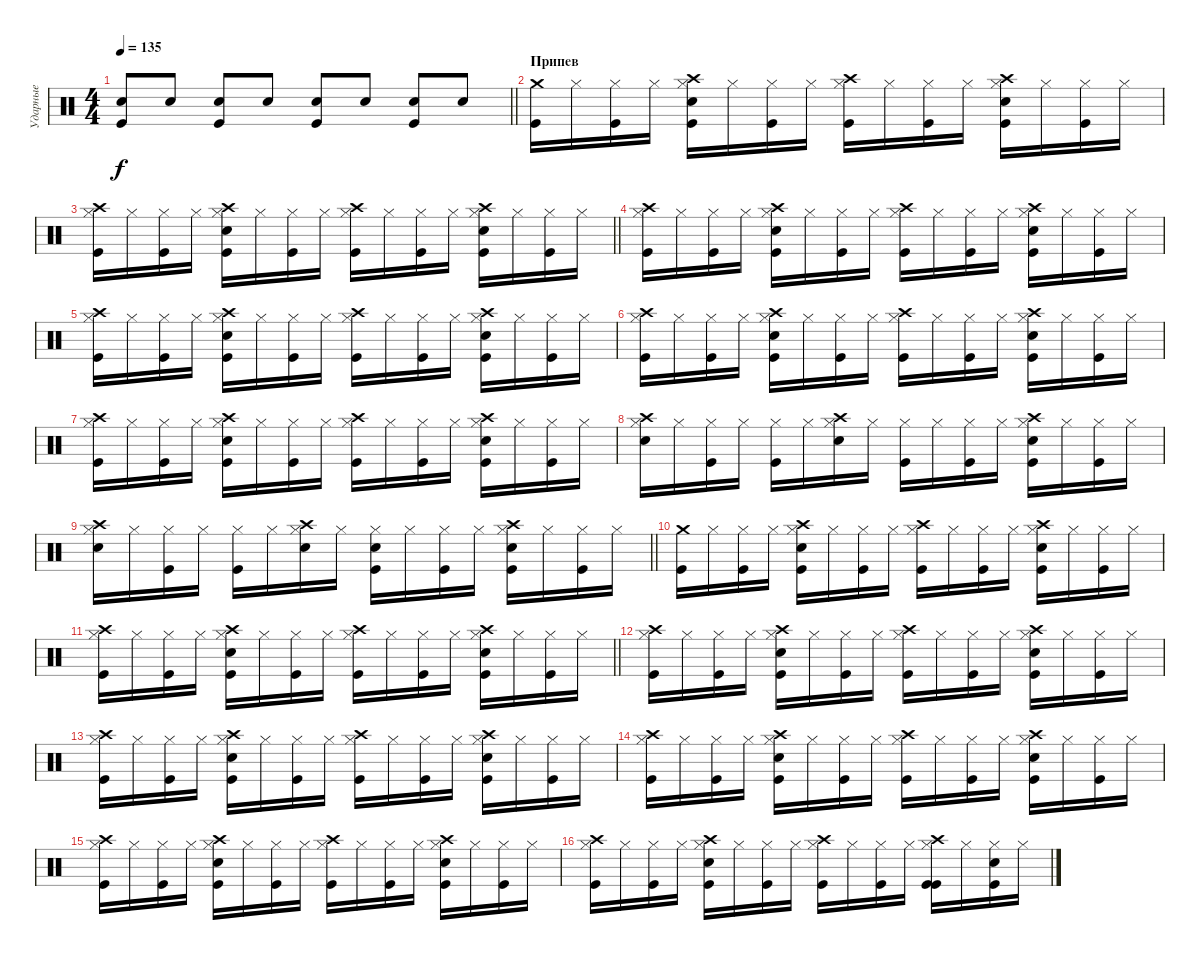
\track ("Ударные" "Ударные") {instrument percussion}
\staff {score}
\articulation defaults
\ts (4 4)
\tempo 135
\clef neutral
\barLineRight lightlight
\ks c
("Electric Snare (hit)" "Kick (hit)").8{dy f} "Electric Snare (hit)".8 ("Electric Snare (hit)" "Kick (hit)").8 "Electric Snare (hit)".8 ("Electric Snare (hit)" "Kick (hit)").8 "Electric Snare (hit)".8 ("Electric Snare (hit)" "Kick (hit)").8 "Electric Snare (hit)".8 |
\section ("" "Припев")
("Crash medium (hit)" "Kick (hit)").16 "Hi-Hat (closed)".16 ("Hi-Hat (closed)" "Kick (hit)").16 "Hi-Hat (closed)".16 ("Crash high (hit)" "Hi-Hat (closed)" "Electric Snare (hit)" "Kick (hit)").16 "Hi-Hat (closed)".16 ("Hi-Hat (closed)" "Kick (hit)").16 "Hi-Hat (closed)".16 ("Crash high (hit)" "Hi-Hat (closed)" "Kick (hit)").16 "Hi-Hat (closed)".16 ("Hi-Hat (closed)" "Kick (hit)").16 "Hi-Hat (closed)".16 ("Crash high (hit)" "Hi-Hat (closed)" "Electric Snare (hit)" "Kick (hit)").16 "Hi-Hat (closed)".16 ("Hi-Hat (closed)" "Kick (hit)").16 "Hi-Hat (closed)".16 |
\barLineRight lightlight
("Crash high (hit)" "Hi-Hat (closed)" "Kick (hit)").16 "Hi-Hat (closed)".16 ("Hi-Hat (closed)" "Kick (hit)").16 "Hi-Hat (closed)".16 ("Crash high (hit)" "Hi-Hat (closed)" "Electric Snare (hit)" "Kick (hit)").16 "Hi-Hat (closed)".16 ("Hi-Hat (closed)" "Kick (hit)").16 "Hi-Hat (closed)".16 ("Crash high (hit)" "Hi-Hat (closed)" "Kick (hit)").16 "Hi-Hat (closed)".16 ("Hi-Hat (closed)" "Kick (hit)").16 "Hi-Hat (closed)".16 ("Crash high (hit)" "Hi-Hat (closed)" "Electric Snare (hit)" "Kick (hit)").16 "Hi-Hat (closed)".16 ("Hi-Hat (closed)" "Kick (hit)").16 "Hi-Hat (closed)".16 |
("Crash high (hit)" "Hi-Hat (closed)" "Kick (hit)").16 "Hi-Hat (closed)".16 ("Hi-Hat (closed)" "Kick (hit)").16 "Hi-Hat (closed)".16 ("Crash high (hit)" "Hi-Hat (closed)" "Electric Snare (hit)" "Kick (hit)").16 "Hi-Hat (closed)".16 ("Hi-Hat (closed)" "Kick (hit)").16 "Hi-Hat (closed)".16 ("Crash high (hit)" "Hi-Hat (closed)" "Kick (hit)").16 "Hi-Hat (closed)".16 ("Hi-Hat (closed)" "Kick (hit)").16 "Hi-Hat (closed)".16 ("Crash high (hit)" "Hi-Hat (closed)" "Electric Snare (hit)" "Kick (hit)").16 "Hi-Hat (closed)".16 ("Hi-Hat (closed)" "Kick (hit)").16 "Hi-Hat (closed)".16 |
("Crash high (hit)" "Hi-Hat (closed)" "Kick (hit)").16 "Hi-Hat (closed)".16 ("Hi-Hat (closed)" "Kick (hit)").16 "Hi-Hat (closed)".16 ("Crash high (hit)" "Hi-Hat (closed)" "Electric Snare (hit)" "Kick (hit)").16 "Hi-Hat (closed)".16 ("Hi-Hat (closed)" "Kick (hit)").16 "Hi-Hat (closed)".16 ("Crash high (hit)" "Hi-Hat (closed)" "Kick (hit)").16 "Hi-Hat (closed)".16 ("Hi-Hat (closed)" "Kick (hit)").16 "Hi-Hat (closed)".16 ("Crash high (hit)" "Hi-Hat (closed)" "Electric Snare (hit)" "Kick (hit)").16 "Hi-Hat (closed)".16 ("Hi-Hat (closed)" "Kick (hit)").16 "Hi-Hat (closed)".16 |
("Crash high (hit)" "Hi-Hat (closed)" "Kick (hit)").16 "Hi-Hat (closed)".16 ("Hi-Hat (closed)" "Kick (hit)").16 "Hi-Hat (closed)".16 ("Crash high (hit)" "Hi-Hat (closed)" "Electric Snare (hit)" "Kick (hit)").16 "Hi-Hat (closed)".16 ("Hi-Hat (closed)" "Kick (hit)").16 "Hi-Hat (closed)".16 ("Crash high (hit)" "Hi-Hat (closed)" "Kick (hit)").16 "Hi-Hat (closed)".16 ("Hi-Hat (closed)" "Kick (hit)").16 "Hi-Hat (closed)".16 ("Crash high (hit)" "Hi-Hat (closed)" "Electric Snare (hit)" "Kick (hit)").16 "Hi-Hat (closed)".16 ("Hi-Hat (closed)" "Kick (hit)").16 "Hi-Hat (closed)".16 |
("Crash high (hit)" "Hi-Hat (closed)" "Kick (hit)").16 "Hi-Hat (closed)".16 ("Hi-Hat (closed)" "Kick (hit)").16 "Hi-Hat (closed)".16 ("Crash high (hit)" "Hi-Hat (closed)" "Electric Snare (hit)" "Kick (hit)").16 "Hi-Hat (closed)".16 ("Hi-Hat (closed)" "Kick (hit)").16 "Hi-Hat (closed)".16 ("Crash high (hit)" "Hi-Hat (closed)" "Kick (hit)").16 "Hi-Hat (closed)".16 ("Hi-Hat (closed)" "Kick (hit)").16 "Hi-Hat (closed)".16 ("Crash high (hit)" "Hi-Hat (closed)" "Electric Snare (hit)" "Kick (hit)").16 "Hi-Hat (closed)".16 ("Hi-Hat (closed)" "Kick (hit)").16 "Hi-Hat (closed)".16 |
("Crash high (hit)" "Hi-Hat (closed)" "Electric Snare (hit)").16 "Hi-Hat (closed)".16 ("Hi-Hat (closed)" "Kick (hit)").16 "Hi-Hat (closed)".16 ("Hi-Hat (closed)" "Kick (hit)").16 "Hi-Hat (closed)".16 ("Crash high (hit)" "Hi-Hat (closed)" "Electric Snare (hit)").16 "Hi-Hat (closed)".16 ("Hi-Hat (closed)" "Kick (hit)").16 "Hi-Hat (closed)".16 ("Hi-Hat (closed)" "Kick (hit)").16 "Hi-Hat (closed)".16 ("Crash high (hit)" "Hi-Hat (closed)" "Electric Snare (hit)" "Kick (hit)").16 "Hi-Hat (closed)".16 ("Hi-Hat (closed)" "Kick (hit)").16 "Hi-Hat (closed)".16 |
\barLineRight lightlight
("Crash high (hit)" "Hi-Hat (closed)" "Electric Snare (hit)").16 "Hi-Hat (closed)".16 ("Hi-Hat (closed)" "Kick (hit)").16 "Hi-Hat (closed)".16 ("Hi-Hat (closed)" "Kick (hit)").16 "Hi-Hat (closed)".16 ("Crash high (hit)" "Hi-Hat (closed)" "Electric Snare (hit)").16 "Hi-Hat (closed)".16 ("Hi-Hat (closed)" "Electric Snare (hit)" "Kick (hit)").16 "Hi-Hat (closed)".16 ("Hi-Hat (closed)" "Kick (hit)").16 "Hi-Hat (closed)".16 ("Crash high (hit)" "Hi-Hat (closed)" "Electric Snare (hit)" "Kick (hit)").16 "Hi-Hat (closed)".16 ("Hi-Hat (closed)" "Kick (hit)").16 "Hi-Hat (closed)".16 |
\section ("" " ")
("Crash medium (hit)" "Kick (hit)").16 "Hi-Hat (closed)".16 ("Hi-Hat (closed)" "Kick (hit)").16 "Hi-Hat (closed)".16 ("Crash high (hit)" "Hi-Hat (closed)" "Electric Snare (hit)" "Kick (hit)").16 "Hi-Hat (closed)".16 ("Hi-Hat (closed)" "Kick (hit)").16 "Hi-Hat (closed)".16 ("Crash high (hit)" "Hi-Hat (closed)" "Kick (hit)").16 "Hi-Hat (closed)".16 ("Hi-Hat (closed)" "Kick (hit)").16 "Hi-Hat (closed)".16 ("Crash high (hit)" "Hi-Hat (closed)" "Electric Snare (hit)" "Kick (hit)").16 "Hi-Hat (closed)".16 ("Hi-Hat (closed)" "Kick (hit)").16 "Hi-Hat (closed)".16 |
\barLineRight lightlight
("Crash high (hit)" "Hi-Hat (closed)" "Kick (hit)").16 "Hi-Hat (closed)".16 ("Hi-Hat (closed)" "Kick (hit)").16 "Hi-Hat (closed)".16 ("Crash high (hit)" "Hi-Hat (closed)" "Electric Snare (hit)" "Kick (hit)").16 "Hi-Hat (closed)".16 ("Hi-Hat (closed)" "Kick (hit)").16 "Hi-Hat (closed)".16 ("Crash high (hit)" "Hi-Hat (closed)" "Kick (hit)").16 "Hi-Hat (closed)".16 ("Hi-Hat (closed)" "Kick (hit)").16 "Hi-Hat (closed)".16 ("Crash high (hit)" "Hi-Hat (closed)" "Electric Snare (hit)" "Kick (hit)").16 "Hi-Hat (closed)".16 ("Hi-Hat (closed)" "Kick (hit)").16 "Hi-Hat (closed)".16 |
("Crash high (hit)" "Hi-Hat (closed)" "Kick (hit)").16 "Hi-Hat (closed)".16 ("Hi-Hat (closed)" "Kick (hit)").16 "Hi-Hat (closed)".16 ("Crash high (hit)" "Hi-Hat (closed)" "Electric Snare (hit)" "Kick (hit)").16 "Hi-Hat (closed)".16 ("Hi-Hat (closed)" "Kick (hit)").16 "Hi-Hat (closed)".16 ("Crash high (hit)" "Hi-Hat (closed)" "Kick (hit)").16 "Hi-Hat (closed)".16 ("Hi-Hat (closed)" "Kick (hit)").16 "Hi-Hat (closed)".16 ("Crash high (hit)" "Hi-Hat (closed)" "Electric Snare (hit)" "Kick (hit)").16 "Hi-Hat (closed)".16 ("Hi-Hat (closed)" "Kick (hit)").16 "Hi-Hat (closed)".16 |
("Crash high (hit)" "Hi-Hat (closed)" "Kick (hit)").16 "Hi-Hat (closed)".16 ("Hi-Hat (closed)" "Kick (hit)").16 "Hi-Hat (closed)".16 ("Crash high (hit)" "Hi-Hat (closed)" "Electric Snare (hit)" "Kick (hit)").16 "Hi-Hat (closed)".16 ("Hi-Hat (closed)" "Kick (hit)").16 "Hi-Hat (closed)".16 ("Crash high (hit)" "Hi-Hat (closed)" "Kick (hit)").16 "Hi-Hat (closed)".16 ("Hi-Hat (closed)" "Kick (hit)").16 "Hi-Hat (closed)".16 ("Crash high (hit)" "Hi-Hat (closed)" "Electric Snare (hit)" "Kick (hit)").16 "Hi-Hat (closed)".16 ("Hi-Hat (closed)" "Kick (hit)").16 "Hi-Hat (closed)".16 |
("Crash high (hit)" "Hi-Hat (closed)" "Kick (hit)").16 "Hi-Hat (closed)".16 ("Hi-Hat (closed)" "Kick (hit)").16 "Hi-Hat (closed)".16 ("Crash high (hit)" "Hi-Hat (closed)" "Electric Snare (hit)" "Kick (hit)").16 "Hi-Hat (closed)".16 ("Hi-Hat (closed)" "Kick (hit)").16 "Hi-Hat (closed)".16 ("Crash high (hit)" "Hi-Hat (closed)" "Kick (hit)").16 "Hi-Hat (closed)".16 ("Hi-Hat (closed)" "Kick (hit)").16 "Hi-Hat (closed)".16 ("Crash high (hit)" "Hi-Hat (closed)" "Electric Snare (hit)" "Kick (hit)").16 "Hi-Hat (closed)".16 ("Hi-Hat (closed)" "Kick (hit)").16 "Hi-Hat (closed)".16 |
("Crash high (hit)" "Hi-Hat (closed)" "Kick (hit)").16 "Hi-Hat (closed)".16 ("Hi-Hat (closed)" "Kick (hit)").16 "Hi-Hat (closed)".16 ("Crash high (hit)" "Hi-Hat (closed)" "Electric Snare (hit)" "Kick (hit)").16 "Hi-Hat (closed)".16 ("Hi-Hat (closed)" "Kick (hit)").16 "Hi-Hat (closed)".16 ("Crash high (hit)" "Hi-Hat (closed)" "Kick (hit)").16 "Hi-Hat (closed)".16 ("Hi-Hat (closed)" "Kick (hit)").16 "Hi-Hat (closed)".16 ("Crash high (hit)" "Hi-Hat (closed)" "Electric Snare (hit)" "Kick (hit)").16 "Hi-Hat (closed)".16 ("Hi-Hat (closed)" "Kick (hit)").16 "Hi-Hat (closed)".16 |
("Crash high (hit)" "Hi-Hat (closed)" "Kick (hit)").16 "Hi-Hat (closed)".16 ("Hi-Hat (closed)" "Kick (hit)").16 "Hi-Hat (closed)".16 ("Crash high (hit)" "Hi-Hat (closed)" "Electric Snare (hit)" "Kick (hit)").16 "Hi-Hat (closed)".16 ("Hi-Hat (closed)" "Kick (hit)").16 "Hi-Hat (closed)".16 ("Crash high (hit)" "Hi-Hat (closed)" "Kick (hit)").16 "Hi-Hat (closed)".16 ("Hi-Hat (closed)" "Kick (hit)").16 "Hi-Hat (closed)".16 ("Crash high (hit)" "Hi-Hat (closed)" "Kick (hit)" "Kick (hit)").16 "Hi-Hat (closed)".16 ("Hi-Hat (closed)" "Electric Snare (hit)" "Kick (hit)").16 "Hi-Hat (closed)".16
